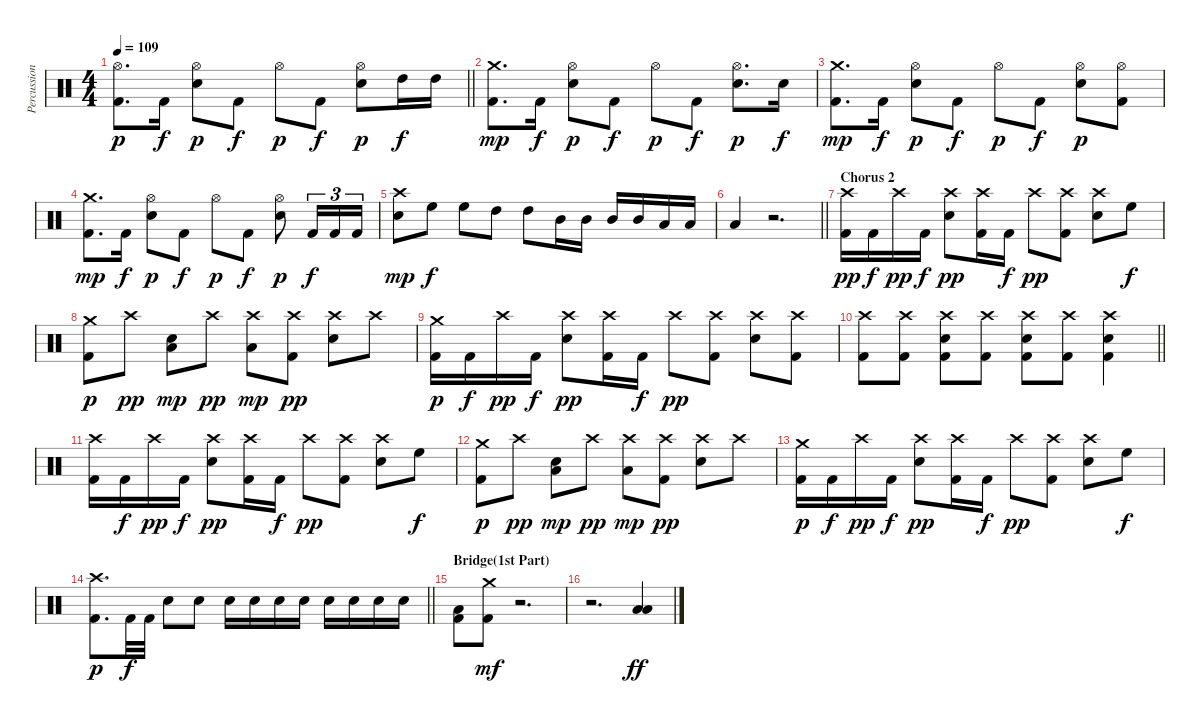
\track ("Percussions" "Percussion") {instrument percussion}
\staff {score}
\articulation defaults
\ts (4 4)
\tempo 109
\clef neutral
\barLineRight lightlight
\ks c
("Hi-Hat (open)" "Kick (hit) 2").8{d dy p} "Kick (hit) 2".16{dy f} ("Hi-Hat (open)" "Electric Snare (hit)").8{dy p} "Kick (hit) 2".8{dy f} "Hi-Hat (open)".8{dy p} "Kick (hit) 2".8{dy f} ("Hi-Hat (open)" "Electric Snare (hit)").8{dy p} "High Tom (hit)".16{dy f} "High Tom (hit)".16 |
("Crash medium (hit)" "Kick (hit) 2").8{d dy mp} "Kick (hit) 2".16{dy f} ("Hi-Hat (open)" "Electric Snare (hit)").8{dy p} "Kick (hit) 2".8{dy f} "Hi-Hat (open)".8{dy p} "Kick (hit) 2".8{dy f} ("Hi-Hat (open)" "Electric Snare (hit)").8{d dy p} "Electric Snare (hit)".16{dy f} |
("Crash medium (hit)" "Kick (hit) 2").8{d dy mp} "Kick (hit) 2".16{dy f} ("Hi-Hat (open)" "Electric Snare (hit)").8{dy p} "Kick (hit) 2".8{dy f} "Hi-Hat (open)".8{dy p} "Kick (hit) 2".8{dy f} ("Hi-Hat (open)" "Electric Snare (hit)").8{dy p} ("Hi-Hat (open)" "Kick (hit) 2").8 |
("Crash medium (hit)" "Kick (hit) 2").8{d dy mp} "Kick (hit) 2".16{dy f} ("Hi-Hat (open)" "Electric Snare (hit)").8{dy p} "Kick (hit) 2".8{dy f} "Hi-Hat (open)".8{dy p} "Kick (hit) 2".8{dy f} ("Hi-Hat (open)" "Electric Snare (hit)").8{dy p} "Kick (hit) 2".16{tu (3 2) dy f} "Kick (hit) 2".16{tu (3 2)} "Kick (hit) 2".16{tu (3 2)} |
("Crash high (hit)" "Electric Snare (hit)").8{dy mp} "High Floor Tom (hit)".8{dy f} "High Floor Tom (hit)".8 "High Tom (hit)".8 "High Tom (hit)".8 "Mid Tom (hit)".16 "Mid Tom (hit)".16 "Mid Tom (hit)".16 "Mid Tom (hit)".16 "Low Tom (hit)".16 "Low Tom (hit)".16 |
\barLineRight lightlight "Low Tom (hit)".4
r.2{d} |
\section ("" "Chorus 2")
("Crash high (hit)" "Kick (hit) 2").16{dy pp} "Kick (hit) 2".16{dy f} "Crash high (hit)".16{dy pp} "Kick (hit) 2".16{dy f} ("Crash high (hit)" "Electric Snare (hit)").8{dy pp} ("Crash high (hit)" "Kick (hit) 2").16 "Kick (hit) 2".16{dy f} "Crash high (hit)".8{dy pp} ("Crash high (hit)" "Kick (hit) 2").8 ("Crash high (hit)" "Electric Snare (hit)").8 "High Floor Tom (hit)".8{dy f} |
("Crash medium (hit)" "Kick (hit) 2").8{dy p} "Crash high (hit)".8{dy pp} ("Low Floor Tom (hit)" "Electric Snare (hit)").8{dy mp} "Crash high (hit)".8{dy pp} ("Crash high (hit)" "Low Floor Tom (hit)").8{dy mp} ("Crash high (hit)" "Kick (hit) 2").8{dy pp} ("Crash high (hit)" "Electric Snare (hit)").8 "Crash high (hit)".8 |
("Crash medium (hit)" "Kick (hit) 2").16{dy p} "Kick (hit) 2".16{dy f} "Crash high (hit)".16{dy pp} "Kick (hit) 2".16{dy f} ("Crash high (hit)" "Electric Snare (hit)").8{dy pp} ("Crash high (hit)" "Kick (hit) 2").16 "Kick (hit) 2".16{dy f} "Crash high (hit)".8{dy pp} ("Crash high (hit)" "Kick (hit) 2").8 ("Crash high (hit)" "Electric Snare (hit)").8 ("Crash high (hit)" "Kick (hit) 2").8 |
\barLineRight lightlight
("Crash high (hit)" "Kick (hit) 2").8 ("Crash high (hit)" "Kick (hit) 2").8 ("Crash high (hit)" "Electric Snare (hit)" "Kick (hit) 2").8 ("Crash high (hit)" "Kick (hit) 2").8 ("Crash high (hit)" "Electric Snare (hit)" "Kick (hit) 2").8 ("Crash high (hit)" "Kick (hit) 2").8 ("Crash high (hit)" "Electric Snare (hit)" "Kick (hit) 2").4 |
("Crash high (hit)" "Kick (hit) 2").16 "Kick (hit) 2".16{dy f} "Crash high (hit)".16{dy pp} "Kick (hit) 2".16{dy f} ("Crash high (hit)" "Electric Snare (hit)").8{dy pp} ("Crash high (hit)" "Kick (hit) 2").16 "Kick (hit) 2".16{dy f} "Crash high (hit)".8{dy pp} ("Crash high (hit)" "Kick (hit) 2").8 ("Crash high (hit)" "Electric Snare (hit)").8 "High Floor Tom (hit)".8{dy f} |
("Crash medium (hit)" "Kick (hit) 2").8{dy p} "Crash high (hit)".8{dy pp} ("Low Floor Tom (hit)" "Electric Snare (hit)").8{dy mp} "Crash high (hit)".8{dy pp} ("Crash high (hit)" "Low Floor Tom (hit)").8{dy mp} ("Crash high (hit)" "Kick (hit) 2").8{dy pp} ("Crash high (hit)" "Electric Snare (hit)").8 "Crash high (hit)".8 |
("Crash medium (hit)" "Kick (hit) 2").16{dy p} "Kick (hit) 2".16{dy f} "Crash high (hit)".16{dy pp} "Kick (hit) 2".16{dy f} ("Crash high (hit)" "Electric Snare (hit)").8{dy pp} ("Crash high (hit)" "Kick (hit) 2").16 "Kick (hit) 2".16{dy f} "Crash high (hit)".8{dy pp} ("Crash high (hit)" "Kick (hit) 2").8 ("Crash high (hit)" "Electric Snare (hit)").8 "High Floor Tom (hit)".8{dy f} |
\barLineRight lightlight
("Crash high (hit)" "Kick (hit) 2").8{d dy p} "Kick (hit) 2".32{dy f} "Kick (hit) 2".32 "Electric Snare (hit)".8 "Electric Snare (hit)".8 "Electric Snare (hit)".16 "Electric Snare (hit)".16 "Electric Snare (hit)".16 "Electric Snare (hit)".16 "Electric Snare (hit)".16 "Electric Snare (hit)".16 "Electric Snare (hit)".16 "Electric Snare (hit)".16 |
\section ("" "Bridge(1st Part)")
("Low Floor Tom (hit)" "Kick (hit) 2").8 ("Crash medium (hit)" "Kick (hit) 2").8{dy mf} r.2{d} |
r.2{d} ("Low Floor Tom (hit)" "Low Floor Tom (hit)").4{dy ff}
